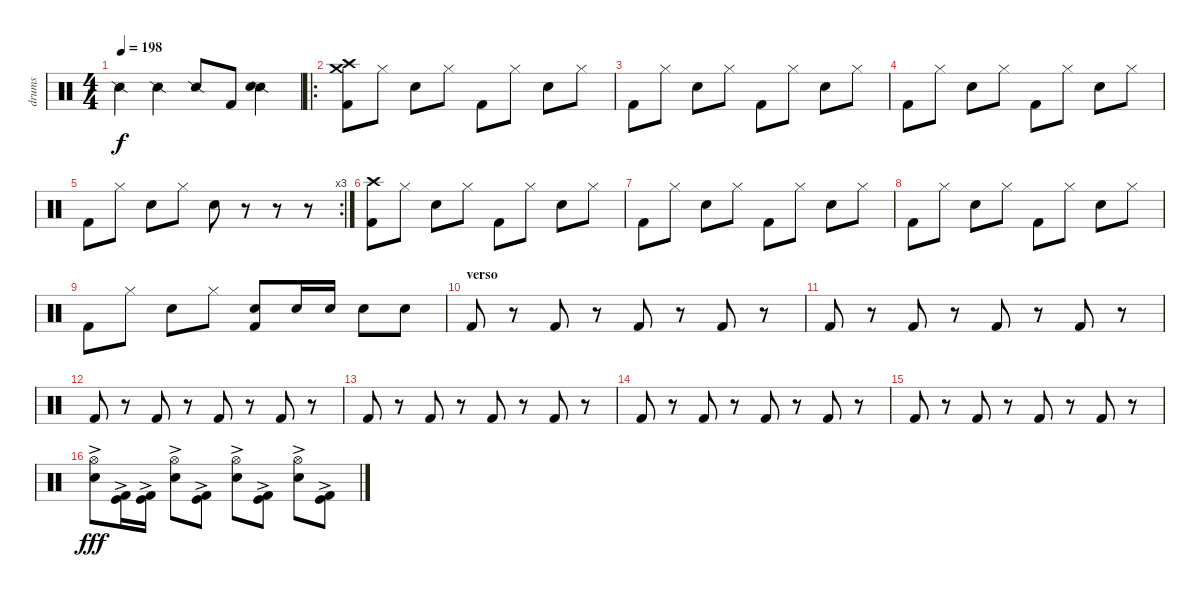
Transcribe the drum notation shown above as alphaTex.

\track ("drums" "drums") {instrument percussion}
\staff {score}
\articulation defaults
\ts (4 4)
\tempo 198
\clef neutral
\ks c "Snare (side stick) 2".4{dy f} "Snare (side stick) 2".4 "Snare (side stick) 2".8 "Kick (hit) 2".8
("Snare (side stick) 2" "Snare (hit) 2").4 |
\ro
("Crash high (hit)" "Crash medium (hit)" "Kick (hit) 2").8 "Hi-Hat (closed)".8 "Snare (hit) 2".8 "Hi-Hat (closed)".8 "Kick (hit) 2".8 "Hi-Hat (closed)".8 "Snare (hit) 2".8 "Hi-Hat (closed)".8 |
"Kick (hit) 2".8 "Hi-Hat (closed)".8 "Snare (hit) 2".8 "Hi-Hat (closed)".8 "Kick (hit) 2".8 "Hi-Hat (closed)".8 "Snare (hit) 2".8 "Hi-Hat (closed)".8 |
"Kick (hit) 2".8 "Hi-Hat (closed)".8 "Snare (hit) 2".8 "Hi-Hat (closed)".8 "Kick (hit) 2".8 "Hi-Hat (closed)".8 "Snare (hit) 2".8 "Hi-Hat (closed)".8 |
\rc 3 "Kick (hit) 2".8 "Hi-Hat (closed)".8 "Snare (hit) 2".8 "Hi-Hat (closed)".8 "Snare (hit) 2".8
r.8 r.8 r.8 |
("Crash high (hit)" "Kick (hit) 2").8 "Hi-Hat (closed)".8 "Snare (hit) 2".8 "Hi-Hat (closed)".8 "Kick (hit) 2".8 "Hi-Hat (closed)".8 "Snare (hit) 2".8 "Hi-Hat (closed)".8 |
"Kick (hit) 2".8 "Hi-Hat (closed)".8 "Snare (hit) 2".8 "Hi-Hat (closed)".8 "Kick (hit) 2".8 "Hi-Hat (closed)".8 "Snare (hit) 2".8 "Hi-Hat (closed)".8 |
"Kick (hit) 2".8 "Hi-Hat (closed)".8 "Snare (hit) 2".8 "Hi-Hat (closed)".8 "Kick (hit) 2".8 "Hi-Hat (closed)".8 "Snare (hit) 2".8 "Hi-Hat (closed)".8 |
"Kick (hit) 2".8 "Hi-Hat (closed)".8 "Snare (hit) 2".8 "Hi-Hat (closed)".8 ("Kick (hit) 2" "Snare (hit) 2").8 "Electric Snare (hit)".16 "Electric Snare (hit)".16 "Electric Snare (hit)".8 "Electric Snare (hit)".8 |
\section ("" "verso")
"Kick (hit) 2".8 r.8 "Kick (hit) 2".8 r.8 "Kick (hit) 2".8 r.8 "Kick (hit) 2".8 r.8 |
"Kick (hit) 2".8 r.8 "Kick (hit) 2".8 r.8 "Kick (hit) 2".8 r.8 "Kick (hit) 2".8 r.8 |
"Kick (hit) 2".8 r.8 "Kick (hit) 2".8 r.8 "Kick (hit) 2".8 r.8 "Kick (hit) 2".8 r.8 |
"Kick (hit) 2".8 r.8 "Kick (hit) 2".8 r.8 "Kick (hit) 2".8 r.8 "Kick (hit) 2".8 r.8 |
"Kick (hit) 2".8 r.8 "Kick (hit) 2".8 r.8 "Kick (hit) 2".8 r.8 "Kick (hit) 2".8 r.8 |
"Kick (hit) 2".8 r.8 "Kick (hit) 2".8 r.8 "Kick (hit) 2".8 r.8 "Kick (hit) 2".8 r.8 |
("Hi-Hat (open)"{ac} "Electric Snare (hit)"{ac}).8{dy fff} ("Kick (hit)"{ac} "Kick (hit) 2").16 ("Kick (hit)"{ac} "Kick (hit) 2").16 ("Hi-Hat (open)" "Electric Snare (hit)"{ac}).8 ("Kick (hit) 2"{ac} "Kick (hit)").8 ("Hi-Hat (open)" "Electric Snare (hit)"{ac}).8 ("Kick (hit) 2"{ac} "Kick (hit)").8 ("Hi-Hat (open)" "Electric Snare (hit)"{ac}).8 ("Kick (hit)" "Kick (hit) 2"{ac}).8
